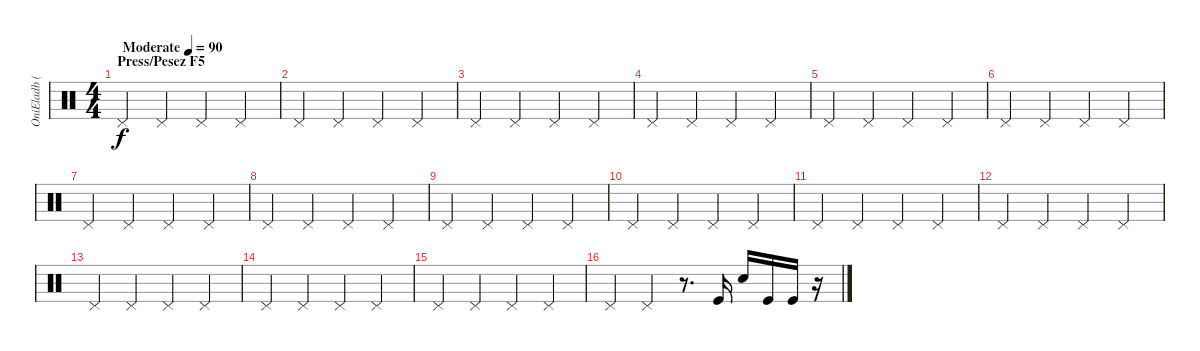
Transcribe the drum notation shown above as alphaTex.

\track ("OniEladb (Battérie)" "OniEladb (") {instrument percussion}
\staff {score}
\articulation defaults
\ts (4 4)
\section ("" "Press/Pesez F5")
\tempo (90 "Moderate")
\clef neutral
\ks c "Pedal Hi-Hat (hit)".4{dy f} "Pedal Hi-Hat (hit)".4 "Pedal Hi-Hat (hit)".4 "Pedal Hi-Hat (hit)".4
|
"Pedal Hi-Hat (hit)".4 "Pedal Hi-Hat (hit)".4 "Pedal Hi-Hat (hit)".4 "Pedal Hi-Hat (hit)".4 |
"Pedal Hi-Hat (hit)".4 "Pedal Hi-Hat (hit)".4 "Pedal Hi-Hat (hit)".4 "Pedal Hi-Hat (hit)".4 |
"Pedal Hi-Hat (hit)".4 "Pedal Hi-Hat (hit)".4 "Pedal Hi-Hat (hit)".4 "Pedal Hi-Hat (hit)".4 |
"Pedal Hi-Hat (hit)".4 "Pedal Hi-Hat (hit)".4 "Pedal Hi-Hat (hit)".4 "Pedal Hi-Hat (hit)".4 |
"Pedal Hi-Hat (hit)".4 "Pedal Hi-Hat (hit)".4 "Pedal Hi-Hat (hit)".4 "Pedal Hi-Hat (hit)".4 |
"Pedal Hi-Hat (hit)".4 "Pedal Hi-Hat (hit)".4 "Pedal Hi-Hat (hit)".4 "Pedal Hi-Hat (hit)".4 |
"Pedal Hi-Hat (hit)".4 "Pedal Hi-Hat (hit)".4 "Pedal Hi-Hat (hit)".4 "Pedal Hi-Hat (hit)".4 |
"Pedal Hi-Hat (hit)".4 "Pedal Hi-Hat (hit)".4 "Pedal Hi-Hat (hit)".4 "Pedal Hi-Hat (hit)".4 |
"Pedal Hi-Hat (hit)".4 "Pedal Hi-Hat (hit)".4 "Pedal Hi-Hat (hit)".4 "Pedal Hi-Hat (hit)".4 |
"Pedal Hi-Hat (hit)".4 "Pedal Hi-Hat (hit)".4 "Pedal Hi-Hat (hit)".4 "Pedal Hi-Hat (hit)".4 |
"Pedal Hi-Hat (hit)".4 "Pedal Hi-Hat (hit)".4 "Pedal Hi-Hat (hit)".4 "Pedal Hi-Hat (hit)".4 |
"Pedal Hi-Hat (hit)".4 "Pedal Hi-Hat (hit)".4 "Pedal Hi-Hat (hit)".4 "Pedal Hi-Hat (hit)".4 |
"Pedal Hi-Hat (hit)".4 "Pedal Hi-Hat (hit)".4 "Pedal Hi-Hat (hit)".4 "Pedal Hi-Hat (hit)".4 |
"Pedal Hi-Hat (hit)".4 "Pedal Hi-Hat (hit)".4 "Pedal Hi-Hat (hit)".4 "Pedal Hi-Hat (hit)".4 |
"Pedal Hi-Hat (hit)".4 "Pedal Hi-Hat (hit)".4 r.8{d} "Kick (hit)".16 "Snare (hit) 2".16 "Kick (hit)".16 "Kick (hit)".16 r.16
